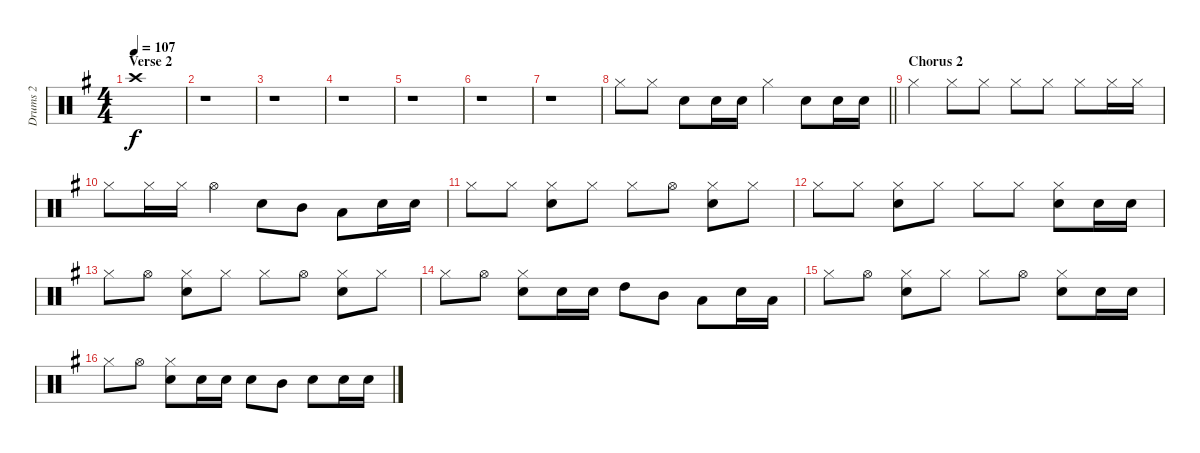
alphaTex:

\track ("Drums 2" "Drums 2") {instrument percussion}
\staff {score}
\articulation defaults
\ts (4 4)
\section ("" "Verse 2")
\tempo 107
\clef neutral
\ks g "Crash high (hit)".1{dy f}
|
r.1 |
r.1 |
r.1 |
r.1 |
r.1 |
r.1 |
\barLineRight lightlight "Hi-Hat (closed)".8 "Hi-Hat (closed)".8 "Snare (hit) 2".8 "Snare (hit) 2".16 "Snare (hit) 2".16 "Hi-Hat (closed)".4 "Snare (hit) 2".8 "Snare (hit) 2".16 "Snare (hit) 2".16
|
\section ("" "Chorus 2")
"Hi-Hat (closed)".4 "Hi-Hat (closed)".8 "Hi-Hat (closed)".8 "Hi-Hat (closed)".8 "Hi-Hat (closed)".8 "Hi-Hat (closed)".8 "Hi-Hat (closed)".16 "Hi-Hat (closed)".16 |
"Hi-Hat (closed)".8 "Hi-Hat (closed)".16 "Hi-Hat (closed)".16 "Hi-Hat (open)".4 "Snare (hit) 2".8 "Mid Tom (hit)".8 "Low Tom (hit)".8 "Snare (hit) 2".16 "Snare (hit) 2".16 |
"Hi-Hat (closed)".8 "Hi-Hat (closed)".8 ("Hi-Hat (closed)" "Snare (hit) 2").8 "Hi-Hat (closed)".8 "Hi-Hat (closed)".8 "Hi-Hat (open)".8 ("Snare (hit) 2" "Hi-Hat (closed)").8 "Hi-Hat (closed)".8 |
"Hi-Hat (closed)".8 "Hi-Hat (closed)".8 ("Snare (hit) 2" "Hi-Hat (closed)").8 "Hi-Hat (closed)".8 "Hi-Hat (closed)".8 "Hi-Hat (closed)".8 ("Snare (hit) 2" "Hi-Hat (closed)").8 "Snare (hit) 2".16 "Snare (hit) 2".16 |
"Hi-Hat (closed)".8 "Hi-Hat (open)".8 ("Snare (hit) 2" "Hi-Hat (closed)").8 "Hi-Hat (closed)".8 "Hi-Hat (closed)".8 "Hi-Hat (open)".8 ("Snare (hit) 2" "Hi-Hat (closed)").8 "Hi-Hat (closed)".8 |
"Hi-Hat (closed)".8 "Hi-Hat (open)".8 ("Hi-Hat (closed)" "Snare (hit) 2").8 "Snare (hit) 2".16 "Snare (hit) 2".16 "High Tom (hit)".8 "Mid Tom (hit)".8 "Low Tom (hit)".8 "Snare (hit) 2".16 "Low Tom (hit)".16 |
"Hi-Hat (closed)".8 "Hi-Hat (open)".8 ("Snare (hit) 2" "Hi-Hat (closed)").8 "Hi-Hat (closed)".8 "Hi-Hat (closed)".8 "Hi-Hat (open)".8 ("Snare (hit) 2" "Hi-Hat (closed)").8 "Snare (hit) 2".16 "Snare (hit) 2".16 |
"Hi-Hat (closed)".8 "Hi-Hat (open)".8 ("Snare (hit) 2" "Hi-Hat (closed)").8 "Snare (hit) 2".16 "Snare (hit) 2".16 "Snare (hit) 2".8 "Mid Tom (hit)".8 "Snare (hit) 2".8 "Snare (hit) 2".16 "Snare (hit) 2".16
